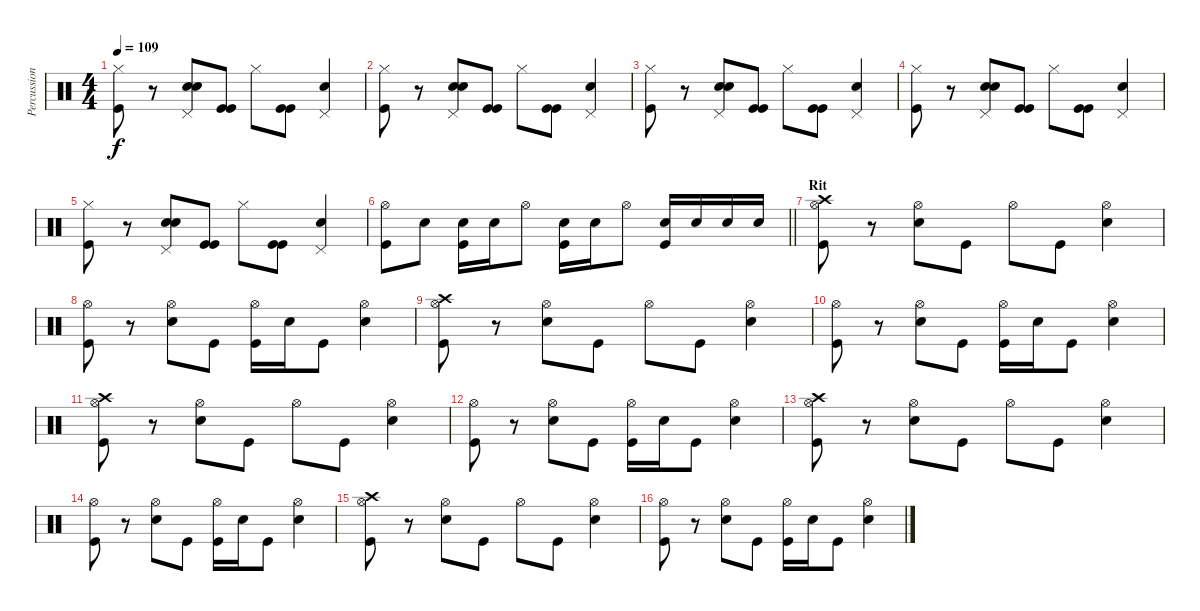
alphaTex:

\track ("Percussioni" "Percussion") {instrument percussion}
\staff {score}
\articulation defaults
\ts (4 4)
\tempo 109
\clef neutral
\ks c
("Hi-Hat (closed)" "Kick (hit)").8{dy f} r.8 ("Snare (hit) 2" "Snare (hit) 2" "Pedal Hi-Hat (hit)").8 ("Kick (hit)" "Kick (hit)").8 "Hi-Hat (closed)".8 ("Kick (hit)" "Kick (hit)").8 ("Snare (hit) 2" "Pedal Hi-Hat (hit)").4 |
("Hi-Hat (closed)" "Kick (hit)").8 r.8 ("Snare (hit) 2" "Snare (hit) 2" "Pedal Hi-Hat (hit)").8 ("Kick (hit)" "Kick (hit)").8 "Hi-Hat (closed)".8 ("Kick (hit)" "Kick (hit)").8 ("Snare (hit) 2" "Pedal Hi-Hat (hit)").4 |
("Hi-Hat (closed)" "Kick (hit)").8 r.8 ("Snare (hit) 2" "Snare (hit) 2" "Pedal Hi-Hat (hit)").8 ("Kick (hit)" "Kick (hit)").8 "Hi-Hat (closed)".8 ("Kick (hit)" "Kick (hit)").8 ("Snare (hit) 2" "Pedal Hi-Hat (hit)").4 |
("Hi-Hat (closed)" "Kick (hit)").8 r.8 ("Snare (hit) 2" "Snare (hit) 2" "Pedal Hi-Hat (hit)").8 ("Kick (hit)" "Kick (hit)").8 "Hi-Hat (closed)".8 ("Kick (hit)" "Kick (hit)").8 ("Snare (hit) 2" "Pedal Hi-Hat (hit)").4 |
("Hi-Hat (closed)" "Kick (hit)").8 r.8 ("Snare (hit) 2" "Snare (hit) 2" "Pedal Hi-Hat (hit)").8 ("Kick (hit)" "Kick (hit)").8 "Hi-Hat (closed)".8 ("Kick (hit)" "Kick (hit)").8 ("Snare (hit) 2" "Pedal Hi-Hat (hit)").4 |
\barLineRight lightlight
("Hi-Hat (open)" "Kick (hit)").8 "Snare (hit) 2".8 ("Snare (hit) 2" "Kick (hit)").16 "Snare (hit) 2".16 "Hi-Hat (open)".8 ("Snare (hit) 2" "Kick (hit)").16 "Snare (hit) 2".16 "Hi-Hat (open)".8 ("Snare (hit) 2" "Kick (hit)").16 "Snare (hit) 2".16 "Snare (hit) 2".16 "Snare (hit) 2".16 |
\section ("" "Rit")
("Crash high (hit)" "Kick (hit)" "Hi-Hat (open)").8 r.8 ("Snare (hit) 2" "Hi-Hat (open)").8 "Kick (hit)".8 "Hi-Hat (open)".8 "Kick (hit)".8 ("Snare (hit) 2" "Hi-Hat (open)").4 |
("Kick (hit)" "Hi-Hat (open)").8 r.8 ("Snare (hit) 2" "Hi-Hat (open)").8 "Kick (hit)".8 ("Kick (hit)" "Hi-Hat (open)").16 "Snare (hit) 2".16 "Kick (hit)".8 ("Snare (hit) 2" "Hi-Hat (open)").4 |
("Crash high (hit)" "Kick (hit)" "Hi-Hat (open)").8 r.8 ("Snare (hit) 2" "Hi-Hat (open)").8 "Kick (hit)".8 "Hi-Hat (open)".8 "Kick (hit)".8 ("Snare (hit) 2" "Hi-Hat (open)").4 |
("Kick (hit)" "Hi-Hat (open)").8 r.8 ("Snare (hit) 2" "Hi-Hat (open)").8 "Kick (hit)".8 ("Kick (hit)" "Hi-Hat (open)").16 "Snare (hit) 2".16 "Kick (hit)".8 ("Snare (hit) 2" "Hi-Hat (open)").4 |
("Crash high (hit)" "Kick (hit)" "Hi-Hat (open)").8 r.8 ("Snare (hit) 2" "Hi-Hat (open)").8 "Kick (hit)".8 "Hi-Hat (open)".8 "Kick (hit)".8 ("Snare (hit) 2" "Hi-Hat (open)").4 |
("Kick (hit)" "Hi-Hat (open)").8 r.8 ("Snare (hit) 2" "Hi-Hat (open)").8 "Kick (hit)".8 ("Kick (hit)" "Hi-Hat (open)").16 "Snare (hit) 2".16 "Kick (hit)".8 ("Snare (hit) 2" "Hi-Hat (open)").4 |
("Crash high (hit)" "Kick (hit)" "Hi-Hat (open)").8 r.8 ("Snare (hit) 2" "Hi-Hat (open)").8 "Kick (hit)".8 "Hi-Hat (open)".8 "Kick (hit)".8 ("Snare (hit) 2" "Hi-Hat (open)").4 |
("Kick (hit)" "Hi-Hat (open)").8 r.8 ("Snare (hit) 2" "Hi-Hat (open)").8 "Kick (hit)".8 ("Kick (hit)" "Hi-Hat (open)").16 "Snare (hit) 2".16 "Kick (hit)".8 ("Snare (hit) 2" "Hi-Hat (open)").4 |
("Crash high (hit)" "Kick (hit)" "Hi-Hat (open)").8 r.8 ("Snare (hit) 2" "Hi-Hat (open)").8 "Kick (hit)".8 "Hi-Hat (open)".8 "Kick (hit)".8 ("Snare (hit) 2" "Hi-Hat (open)").4 |
("Kick (hit)" "Hi-Hat (open)").8 r.8 ("Snare (hit) 2" "Hi-Hat (open)").8 "Kick (hit)".8 ("Kick (hit)" "Hi-Hat (open)").16 "Snare (hit) 2".16 "Kick (hit)".8 ("Snare (hit) 2" "Hi-Hat (open)").4
